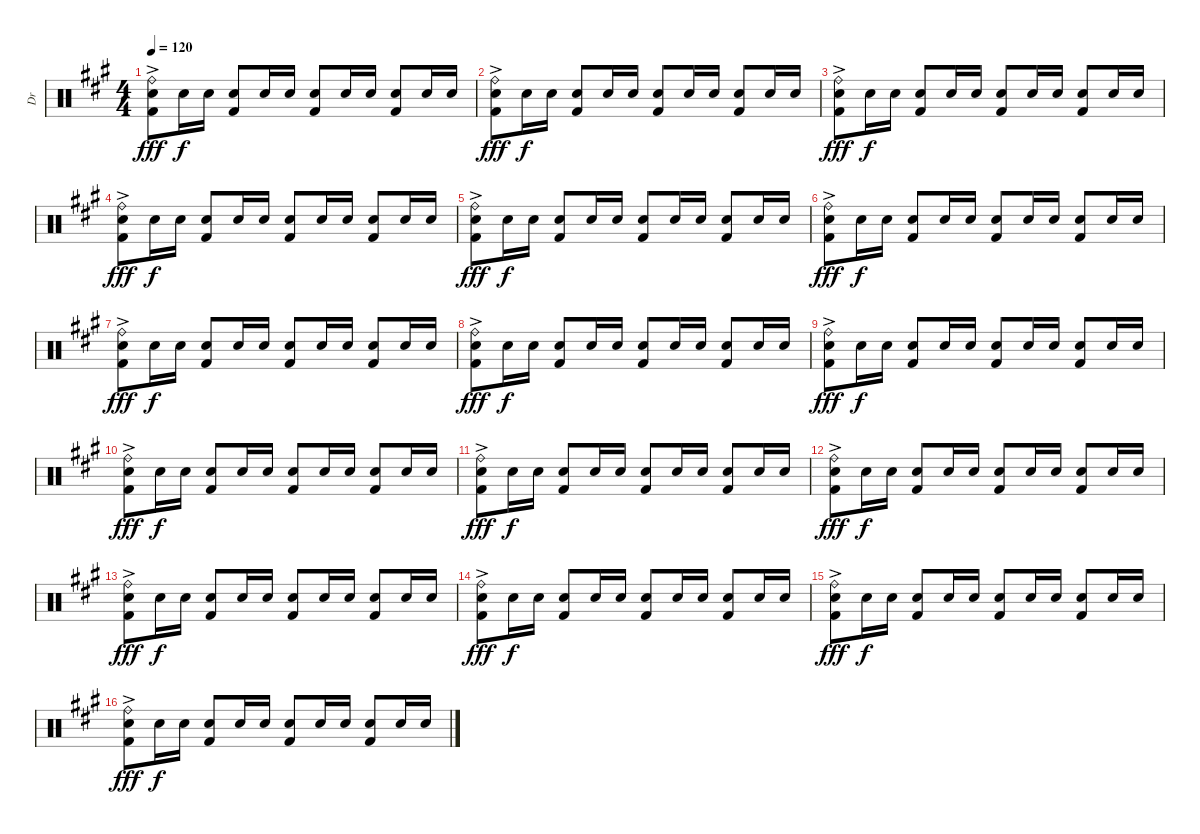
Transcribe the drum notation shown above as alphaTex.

\track ("Dr" "Dr") {instrument percussion}
\staff {score}
\articulation defaults
\ts (4 4)
\tempo 120
\clef neutral
\ks a
("Ride (bell)"{ac} "Electric Snare (hit)" "Kick (hit) 2").8{dy fff} "Electric Snare (hit)".16{dy f} "Electric Snare (hit)".16 ("Electric Snare (hit)" "Kick (hit) 2").8 "Electric Snare (hit)".16 "Electric Snare (hit)".16 ("Electric Snare (hit)" "Kick (hit) 2").8 "Electric Snare (hit)".16 "Electric Snare (hit)".16 ("Electric Snare (hit)" "Kick (hit) 2").8 "Electric Snare (hit)".16 "Electric Snare (hit)".16 |
("Ride (bell)"{ac} "Electric Snare (hit)" "Kick (hit) 2").8{dy fff} "Electric Snare (hit)".16{dy f} "Electric Snare (hit)".16 ("Electric Snare (hit)" "Kick (hit) 2").8 "Electric Snare (hit)".16 "Electric Snare (hit)".16 ("Electric Snare (hit)" "Kick (hit) 2").8 "Electric Snare (hit)".16 "Electric Snare (hit)".16 ("Electric Snare (hit)" "Kick (hit) 2").8 "Electric Snare (hit)".16 "Electric Snare (hit)".16 |
("Ride (bell)"{ac} "Electric Snare (hit)" "Kick (hit) 2").8{dy fff} "Electric Snare (hit)".16{dy f} "Electric Snare (hit)".16 ("Electric Snare (hit)" "Kick (hit) 2").8 "Electric Snare (hit)".16 "Electric Snare (hit)".16 ("Electric Snare (hit)" "Kick (hit) 2").8 "Electric Snare (hit)".16 "Electric Snare (hit)".16 ("Electric Snare (hit)" "Kick (hit) 2").8 "Electric Snare (hit)".16 "Electric Snare (hit)".16 |
("Ride (bell)"{ac} "Electric Snare (hit)" "Kick (hit) 2").8{dy fff} "Electric Snare (hit)".16{dy f} "Electric Snare (hit)".16 ("Electric Snare (hit)" "Kick (hit) 2").8 "Electric Snare (hit)".16 "Electric Snare (hit)".16 ("Electric Snare (hit)" "Kick (hit) 2").8 "Electric Snare (hit)".16 "Electric Snare (hit)".16 ("Electric Snare (hit)" "Kick (hit) 2").8 "Electric Snare (hit)".16 "Electric Snare (hit)".16 |
("Ride (bell)"{ac} "Electric Snare (hit)" "Kick (hit) 2").8{dy fff} "Electric Snare (hit)".16{dy f} "Electric Snare (hit)".16 ("Electric Snare (hit)" "Kick (hit) 2").8 "Electric Snare (hit)".16 "Electric Snare (hit)".16 ("Electric Snare (hit)" "Kick (hit) 2").8 "Electric Snare (hit)".16 "Electric Snare (hit)".16 ("Electric Snare (hit)" "Kick (hit) 2").8 "Electric Snare (hit)".16 "Electric Snare (hit)".16 |
("Ride (bell)"{ac} "Electric Snare (hit)" "Kick (hit) 2").8{dy fff} "Electric Snare (hit)".16{dy f} "Electric Snare (hit)".16 ("Electric Snare (hit)" "Kick (hit) 2").8 "Electric Snare (hit)".16 "Electric Snare (hit)".16 ("Electric Snare (hit)" "Kick (hit) 2").8 "Electric Snare (hit)".16 "Electric Snare (hit)".16 ("Electric Snare (hit)" "Kick (hit) 2").8 "Electric Snare (hit)".16 "Electric Snare (hit)".16 |
("Ride (bell)"{ac} "Electric Snare (hit)" "Kick (hit) 2").8{dy fff} "Electric Snare (hit)".16{dy f} "Electric Snare (hit)".16 ("Electric Snare (hit)" "Kick (hit) 2").8 "Electric Snare (hit)".16 "Electric Snare (hit)".16 ("Electric Snare (hit)" "Kick (hit) 2").8 "Electric Snare (hit)".16 "Electric Snare (hit)".16 ("Electric Snare (hit)" "Kick (hit) 2").8 "Electric Snare (hit)".16 "Electric Snare (hit)".16 |
("Ride (bell)"{ac} "Electric Snare (hit)" "Kick (hit) 2").8{dy fff} "Electric Snare (hit)".16{dy f} "Electric Snare (hit)".16 ("Electric Snare (hit)" "Kick (hit) 2").8 "Electric Snare (hit)".16 "Electric Snare (hit)".16 ("Electric Snare (hit)" "Kick (hit) 2").8 "Electric Snare (hit)".16 "Electric Snare (hit)".16 ("Electric Snare (hit)" "Kick (hit) 2").8 "Electric Snare (hit)".16 "Electric Snare (hit)".16 |
("Ride (bell)"{ac} "Electric Snare (hit)" "Kick (hit) 2").8{dy fff} "Electric Snare (hit)".16{dy f} "Electric Snare (hit)".16 ("Electric Snare (hit)" "Kick (hit) 2").8 "Electric Snare (hit)".16 "Electric Snare (hit)".16 ("Electric Snare (hit)" "Kick (hit) 2").8 "Electric Snare (hit)".16 "Electric Snare (hit)".16 ("Electric Snare (hit)" "Kick (hit) 2").8 "Electric Snare (hit)".16 "Electric Snare (hit)".16 |
("Ride (bell)"{ac} "Electric Snare (hit)" "Kick (hit) 2").8{dy fff} "Electric Snare (hit)".16{dy f} "Electric Snare (hit)".16 ("Electric Snare (hit)" "Kick (hit) 2").8 "Electric Snare (hit)".16 "Electric Snare (hit)".16 ("Electric Snare (hit)" "Kick (hit) 2").8 "Electric Snare (hit)".16 "Electric Snare (hit)".16 ("Electric Snare (hit)" "Kick (hit) 2").8 "Electric Snare (hit)".16 "Electric Snare (hit)".16 |
("Ride (bell)"{ac} "Electric Snare (hit)" "Kick (hit) 2").8{dy fff} "Electric Snare (hit)".16{dy f} "Electric Snare (hit)".16 ("Electric Snare (hit)" "Kick (hit) 2").8 "Electric Snare (hit)".16 "Electric Snare (hit)".16 ("Electric Snare (hit)" "Kick (hit) 2").8 "Electric Snare (hit)".16 "Electric Snare (hit)".16 ("Electric Snare (hit)" "Kick (hit) 2").8 "Electric Snare (hit)".16 "Electric Snare (hit)".16 |
("Ride (bell)"{ac} "Electric Snare (hit)" "Kick (hit) 2").8{dy fff} "Electric Snare (hit)".16{dy f} "Electric Snare (hit)".16 ("Electric Snare (hit)" "Kick (hit) 2").8 "Electric Snare (hit)".16 "Electric Snare (hit)".16 ("Electric Snare (hit)" "Kick (hit) 2").8 "Electric Snare (hit)".16 "Electric Snare (hit)".16 ("Electric Snare (hit)" "Kick (hit) 2").8 "Electric Snare (hit)".16 "Electric Snare (hit)".16 |
("Ride (bell)"{ac} "Electric Snare (hit)" "Kick (hit) 2").8{dy fff} "Electric Snare (hit)".16{dy f} "Electric Snare (hit)".16 ("Electric Snare (hit)" "Kick (hit) 2").8 "Electric Snare (hit)".16 "Electric Snare (hit)".16 ("Electric Snare (hit)" "Kick (hit) 2").8 "Electric Snare (hit)".16 "Electric Snare (hit)".16 ("Electric Snare (hit)" "Kick (hit) 2").8 "Electric Snare (hit)".16 "Electric Snare (hit)".16 |
("Ride (bell)"{ac} "Electric Snare (hit)" "Kick (hit) 2").8{dy fff} "Electric Snare (hit)".16{dy f} "Electric Snare (hit)".16 ("Electric Snare (hit)" "Kick (hit) 2").8 "Electric Snare (hit)".16 "Electric Snare (hit)".16 ("Electric Snare (hit)" "Kick (hit) 2").8 "Electric Snare (hit)".16 "Electric Snare (hit)".16 ("Electric Snare (hit)" "Kick (hit) 2").8 "Electric Snare (hit)".16 "Electric Snare (hit)".16 |
("Ride (bell)"{ac} "Electric Snare (hit)" "Kick (hit) 2").8{dy fff} "Electric Snare (hit)".16{dy f} "Electric Snare (hit)".16 ("Electric Snare (hit)" "Kick (hit) 2").8 "Electric Snare (hit)".16 "Electric Snare (hit)".16 ("Electric Snare (hit)" "Kick (hit) 2").8 "Electric Snare (hit)".16 "Electric Snare (hit)".16 ("Electric Snare (hit)" "Kick (hit) 2").8 "Electric Snare (hit)".16 "Electric Snare (hit)".16 |
("Ride (bell)"{ac} "Electric Snare (hit)" "Kick (hit) 2").8{dy fff} "Electric Snare (hit)".16{dy f} "Electric Snare (hit)".16 ("Electric Snare (hit)" "Kick (hit) 2").8 "Electric Snare (hit)".16 "Electric Snare (hit)".16 ("Electric Snare (hit)" "Kick (hit) 2").8 "Electric Snare (hit)".16 "Electric Snare (hit)".16 ("Electric Snare (hit)" "Kick (hit) 2").8 "Electric Snare (hit)".16 "Electric Snare (hit)".16
